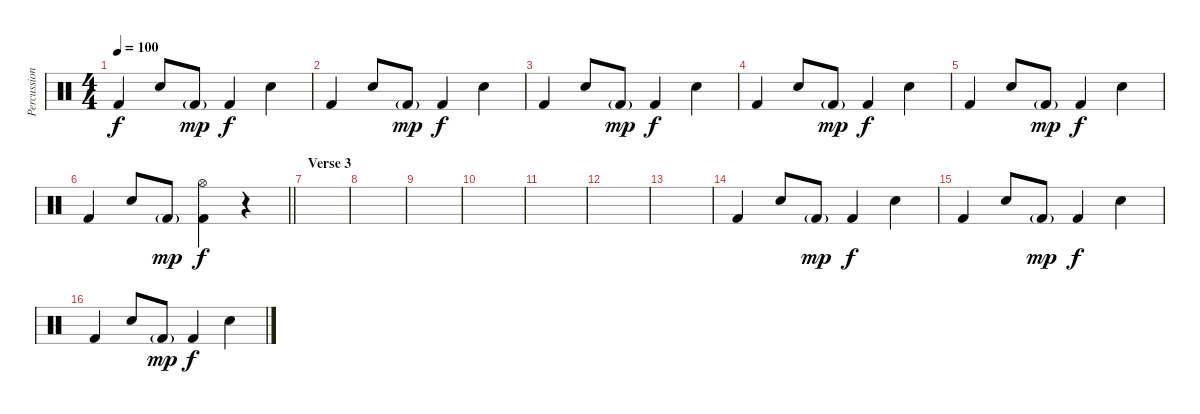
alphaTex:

\track ("Percussion" "Percussion") {instrument percussion}
\staff {score}
\articulation defaults
\ts (4 4)
\tempo 100
\clef neutral
\ks c "Kick (hit) 2".4{dy f} "Snare (hit) 2".8 "Kick (hit) 2"{g}.8{dy mp} "Kick (hit) 2".4{dy f} "Snare (hit) 2".4
|
"Kick (hit) 2".4 "Snare (hit) 2".8 "Kick (hit) 2"{g}.8{dy mp} "Kick (hit) 2".4{dy f} "Snare (hit) 2".4 |
"Kick (hit) 2".4 "Snare (hit) 2".8 "Kick (hit) 2"{g}.8{dy mp} "Kick (hit) 2".4{dy f} "Snare (hit) 2".4 |
"Kick (hit) 2".4 "Snare (hit) 2".8 "Kick (hit) 2"{g}.8{dy mp} "Kick (hit) 2".4{dy f} "Snare (hit) 2".4 |
"Kick (hit) 2".4 "Snare (hit) 2".8 "Kick (hit) 2"{g}.8{dy mp} "Kick (hit) 2".4{dy f} "Snare (hit) 2".4 |
\barLineRight lightlight "Kick (hit) 2".4 "Snare (hit) 2".8 "Kick (hit) 2"{g}.8{dy mp}
("Hi-Hat (open)" "Kick (hit) 2").4{dy f} r.4 |
\section ("" "Verse 3")
|
|
|
|
|
|
|
"Kick (hit) 2".4 "Snare (hit) 2".8 "Kick (hit) 2"{g}.8{dy mp} "Kick (hit) 2".4{dy f} "Snare (hit) 2".4 |
"Kick (hit) 2".4 "Snare (hit) 2".8 "Kick (hit) 2"{g}.8{dy mp} "Kick (hit) 2".4{dy f} "Snare (hit) 2".4 |
"Kick (hit) 2".4 "Snare (hit) 2".8 "Kick (hit) 2"{g}.8{dy mp} "Kick (hit) 2".4{dy f} "Snare (hit) 2".4
